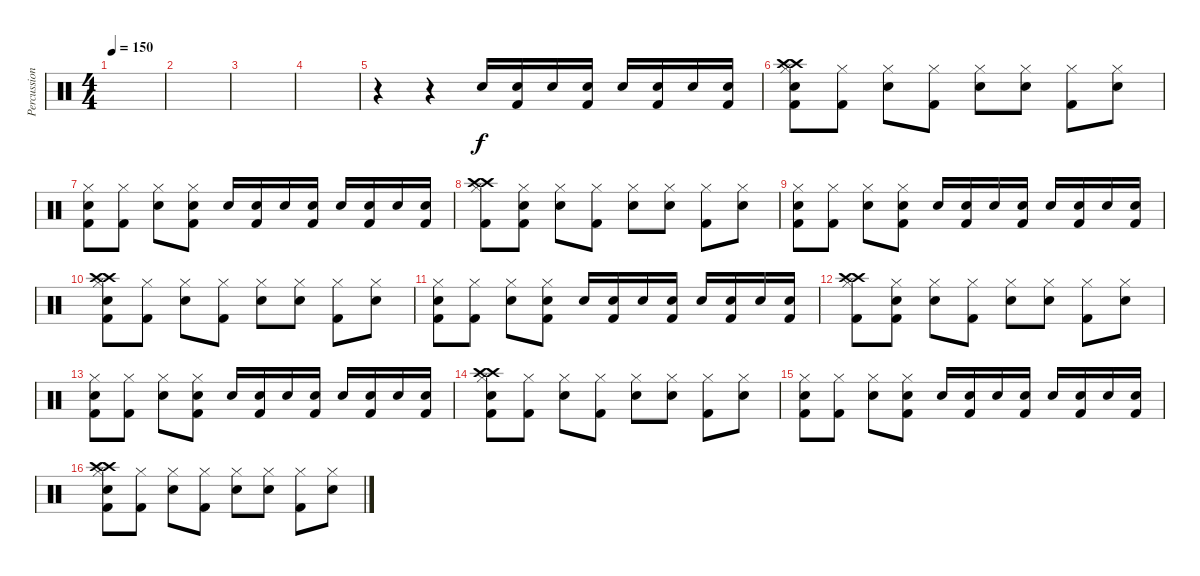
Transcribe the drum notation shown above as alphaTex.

\track ("Percussion" "Percussion") {instrument percussion}
\staff {score}
\articulation defaults
\ts (4 4)
\tempo 150
\clef neutral
\ks c
|
|
|
|
r.4 r.4 "Electric Snare (hit)".16 ("Electric Snare (hit)" "Kick (hit) 2").16 "Electric Snare (hit)".16 ("Electric Snare (hit)" "Kick (hit) 2").16 "Electric Snare (hit)".16 ("Electric Snare (hit)" "Kick (hit) 2").16 "Electric Snare (hit)".16 ("Electric Snare (hit)" "Kick (hit) 2").16 |
("Crash high (hit)" "Crash high (hit)" "Hi-Hat (closed)" "Snare (hit) 2" "Kick (hit) 2").8 ("Hi-Hat (closed)" "Kick (hit) 2").8 ("Hi-Hat (closed)" "Electric Snare (hit)").8 ("Hi-Hat (closed)" "Kick (hit) 2").8 ("Hi-Hat (closed)" "Snare (hit) 2").8 ("Hi-Hat (closed)" "Electric Snare (hit)").8 ("Hi-Hat (closed)" "Kick (hit) 2").8 ("Hi-Hat (closed)" "Snare (hit) 2").8 |
("Hi-Hat (closed)" "Electric Snare (hit)" "Kick (hit) 2").8 ("Hi-Hat (closed)" "Kick (hit) 2").8 ("Hi-Hat (closed)" "Snare (hit) 2").8 ("Hi-Hat (closed)" "Electric Snare (hit)" "Kick (hit) 2").8 "Electric Snare (hit)".16 ("Electric Snare (hit)" "Kick (hit) 2").16 "Electric Snare (hit)".16 ("Electric Snare (hit)" "Kick (hit) 2").16 "Electric Snare (hit)".16 ("Electric Snare (hit)" "Kick (hit) 2").16 "Electric Snare (hit)".16 ("Electric Snare (hit)" "Kick (hit) 2").16 |
("Crash high (hit)" "Crash high (hit)" "Hi-Hat (closed)" "Kick (hit) 2").8 ("Hi-Hat (closed)" "Snare (hit) 2" "Kick (hit) 2").8 ("Hi-Hat (closed)" "Electric Snare (hit)").8 ("Hi-Hat (closed)" "Kick (hit) 2").8 ("Hi-Hat (closed)" "Snare (hit) 2").8 ("Hi-Hat (closed)" "Electric Snare (hit)").8 ("Hi-Hat (closed)" "Kick (hit) 2").8 ("Hi-Hat (closed)" "Snare (hit) 2").8 |
("Hi-Hat (closed)" "Electric Snare (hit)" "Kick (hit) 2").8 ("Hi-Hat (closed)" "Kick (hit) 2").8 ("Hi-Hat (closed)" "Snare (hit) 2").8 ("Hi-Hat (closed)" "Electric Snare (hit)" "Kick (hit) 2").8 "Electric Snare (hit)".16 ("Electric Snare (hit)" "Kick (hit) 2").16 "Electric Snare (hit)".16 ("Electric Snare (hit)" "Kick (hit) 2").16 "Electric Snare (hit)".16 ("Electric Snare (hit)" "Kick (hit) 2").16 "Electric Snare (hit)".16 ("Electric Snare (hit)" "Kick (hit) 2").16 |
("Crash high (hit)" "Crash high (hit)" "Hi-Hat (closed)" "Snare (hit) 2" "Kick (hit) 2").8 ("Hi-Hat (closed)" "Kick (hit) 2").8 ("Hi-Hat (closed)" "Electric Snare (hit)").8 ("Hi-Hat (closed)" "Kick (hit) 2").8 ("Hi-Hat (closed)" "Snare (hit) 2").8 ("Hi-Hat (closed)" "Electric Snare (hit)").8 ("Hi-Hat (closed)" "Kick (hit) 2").8 ("Hi-Hat (closed)" "Snare (hit) 2").8 |
("Hi-Hat (closed)" "Electric Snare (hit)" "Kick (hit) 2").8 ("Hi-Hat (closed)" "Kick (hit) 2").8 ("Hi-Hat (closed)" "Snare (hit) 2").8 ("Hi-Hat (closed)" "Electric Snare (hit)" "Kick (hit) 2").8 "Electric Snare (hit)".16 ("Electric Snare (hit)" "Kick (hit) 2").16 "Electric Snare (hit)".16 ("Electric Snare (hit)" "Kick (hit) 2").16 "Electric Snare (hit)".16 ("Electric Snare (hit)" "Kick (hit) 2").16 "Electric Snare (hit)".16 ("Electric Snare (hit)" "Kick (hit) 2").16 |
("Crash high (hit)" "Crash high (hit)" "Hi-Hat (closed)" "Kick (hit) 2").8 ("Hi-Hat (closed)" "Snare (hit) 2" "Kick (hit) 2").8 ("Hi-Hat (closed)" "Electric Snare (hit)").8 ("Hi-Hat (closed)" "Kick (hit) 2").8 ("Hi-Hat (closed)" "Snare (hit) 2").8 ("Hi-Hat (closed)" "Electric Snare (hit)").8 ("Hi-Hat (closed)" "Kick (hit) 2").8 ("Hi-Hat (closed)" "Snare (hit) 2").8 |
("Hi-Hat (closed)" "Electric Snare (hit)" "Kick (hit) 2").8 ("Hi-Hat (closed)" "Kick (hit) 2").8 ("Hi-Hat (closed)" "Snare (hit) 2").8 ("Hi-Hat (closed)" "Electric Snare (hit)" "Kick (hit) 2").8 "Electric Snare (hit)".16 ("Electric Snare (hit)" "Kick (hit) 2").16 "Electric Snare (hit)".16 ("Electric Snare (hit)" "Kick (hit) 2").16 "Electric Snare (hit)".16 ("Electric Snare (hit)" "Kick (hit) 2").16 "Electric Snare (hit)".16 ("Electric Snare (hit)" "Kick (hit) 2").16 |
("Crash high (hit)" "Crash high (hit)" "Hi-Hat (closed)" "Snare (hit) 2" "Kick (hit) 2").8 ("Hi-Hat (closed)" "Kick (hit) 2").8 ("Hi-Hat (closed)" "Electric Snare (hit)").8 ("Hi-Hat (closed)" "Kick (hit) 2").8 ("Hi-Hat (closed)" "Snare (hit) 2").8 ("Hi-Hat (closed)" "Electric Snare (hit)").8 ("Hi-Hat (closed)" "Kick (hit) 2").8 ("Hi-Hat (closed)" "Snare (hit) 2").8 |
("Hi-Hat (closed)" "Electric Snare (hit)" "Kick (hit) 2").8 ("Hi-Hat (closed)" "Kick (hit) 2").8 ("Hi-Hat (closed)" "Snare (hit) 2").8 ("Hi-Hat (closed)" "Electric Snare (hit)" "Kick (hit) 2").8 "Electric Snare (hit)".16 ("Electric Snare (hit)" "Kick (hit) 2").16 "Electric Snare (hit)".16 ("Electric Snare (hit)" "Kick (hit) 2").16 "Electric Snare (hit)".16 ("Electric Snare (hit)" "Kick (hit) 2").16 "Electric Snare (hit)".16 ("Electric Snare (hit)" "Kick (hit) 2").16 |
("Crash high (hit)" "Crash high (hit)" "Hi-Hat (closed)" "Snare (hit) 2" "Kick (hit) 2").8 ("Hi-Hat (closed)" "Kick (hit) 2").8 ("Hi-Hat (closed)" "Electric Snare (hit)").8 ("Hi-Hat (closed)" "Kick (hit) 2").8 ("Hi-Hat (closed)" "Snare (hit) 2").8 ("Hi-Hat (closed)" "Electric Snare (hit)").8 ("Hi-Hat (closed)" "Kick (hit) 2").8 ("Hi-Hat (closed)" "Snare (hit) 2").8
